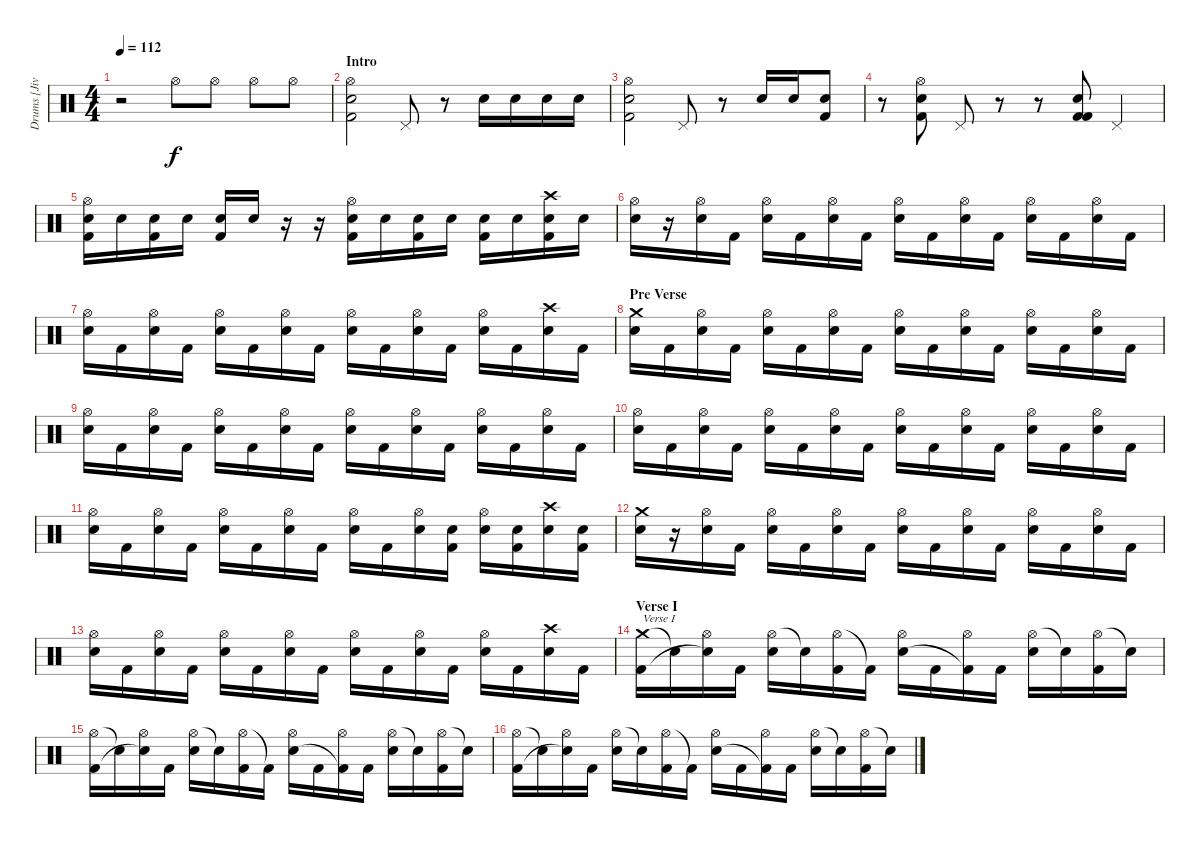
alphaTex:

\track ("Drums [Jivarp]" "Drums [Jiv") {instrument percussion}
\staff {score}
\articulation defaults
\ts (4 4)
\tempo 112
\clef neutral
\ks c
r.2{dy f} "Hi-Hat (open)".8 "Hi-Hat (open)".8 "Hi-Hat (open)".8 "Hi-Hat (open)".8 |
\section ("" "Intro")
("Hi-Hat (open)" "Electric Snare (hit)" "Kick (hit) 2").2 "Pedal Hi-Hat (hit)".8 r.8 "Electric Snare (hit)".16 "Electric Snare (hit)".16 "Electric Snare (hit)".16 "Electric Snare (hit)".16 |
("Hi-Hat (open)" "Electric Snare (hit)" "Kick (hit) 2").2 "Pedal Hi-Hat (hit)".8 r.8 "Electric Snare (hit)".16 "Electric Snare (hit)".16 ("Electric Snare (hit)" "Kick (hit) 2").8 |
r.8 ("Hi-Hat (open)" "Electric Snare (hit)" "Kick (hit) 2").8 "Pedal Hi-Hat (hit)".8 r.8 r.8 ("Kick (hit) 2" "Electric Snare (hit)" "Kick (hit) 2").8 "Pedal Hi-Hat (hit)".4 |
("Hi-Hat (open)" "Electric Snare (hit)" "Kick (hit) 2").16 "Electric Snare (hit)".16 ("Electric Snare (hit)" "Kick (hit) 2").16 "Electric Snare (hit)".16 ("Electric Snare (hit)" "Kick (hit) 2").16 "Electric Snare (hit)".16 r.16 r.16 ("Hi-Hat (open)" "Electric Snare (hit)" "Kick (hit) 2").16 "Electric Snare (hit)".16 ("Electric Snare (hit)" "Kick (hit) 2").16 "Electric Snare (hit)".16 ("Electric Snare (hit)" "Kick (hit) 2").16 "Electric Snare (hit)".16 ("Crash high (hit)" "Electric Snare (hit)" "Kick (hit) 2").16 "Electric Snare (hit)".16 |
("Hi-Hat (open)" "Electric Snare (hit)").16 r.16 ("Hi-Hat (open)" "Electric Snare (hit)").16 "Kick (hit) 2".16 ("Hi-Hat (open)" "Electric Snare (hit)").16 "Kick (hit) 2".16 ("Hi-Hat (open)" "Electric Snare (hit)").16 "Kick (hit) 2".16 ("Hi-Hat (open)" "Electric Snare (hit)").16 "Kick (hit) 2".16 ("Hi-Hat (open)" "Electric Snare (hit)").16 "Kick (hit) 2".16 ("Hi-Hat (open)" "Electric Snare (hit)").16 "Kick (hit) 2".16 ("Hi-Hat (open)" "Electric Snare (hit)").16 "Kick (hit) 2".16 |
("Hi-Hat (open)" "Electric Snare (hit)").16 "Kick (hit) 2".16 ("Hi-Hat (open)" "Electric Snare (hit)").16 "Kick (hit) 2".16 ("Hi-Hat (open)" "Electric Snare (hit)").16 "Kick (hit) 2".16 ("Hi-Hat (open)" "Electric Snare (hit)").16 "Kick (hit) 2".16 ("Hi-Hat (open)" "Electric Snare (hit)").16 "Kick (hit) 2".16 ("Hi-Hat (open)" "Electric Snare (hit)").16 "Kick (hit) 2".16 ("Hi-Hat (open)" "Electric Snare (hit)").16 "Kick (hit) 2".16 ("Crash high (hit)" "Electric Snare (hit)").16 "Kick (hit) 2".16 |
\section ("" "Pre Verse")
("Crash medium (hit)" "Electric Snare (hit)").16 "Kick (hit) 2".16 ("Hi-Hat (open)" "Electric Snare (hit)").16 "Kick (hit) 2".16 ("Hi-Hat (open)" "Electric Snare (hit)").16 "Kick (hit) 2".16 ("Hi-Hat (open)" "Electric Snare (hit)").16 "Kick (hit) 2".16 ("Hi-Hat (open)" "Electric Snare (hit)").16 "Kick (hit) 2".16 ("Hi-Hat (open)" "Electric Snare (hit)").16 "Kick (hit) 2".16 ("Hi-Hat (open)" "Electric Snare (hit)").16 "Kick (hit) 2".16 ("Hi-Hat (open)" "Electric Snare (hit)").16 "Kick (hit) 2".16 |
("Hi-Hat (open)" "Electric Snare (hit)").16 "Kick (hit) 2".16 ("Hi-Hat (open)" "Electric Snare (hit)").16 "Kick (hit) 2".16 ("Hi-Hat (open)" "Electric Snare (hit)").16 "Kick (hit) 2".16 ("Hi-Hat (open)" "Electric Snare (hit)").16 "Kick (hit) 2".16 ("Hi-Hat (open)" "Electric Snare (hit)").16 "Kick (hit) 2".16 ("Hi-Hat (open)" "Electric Snare (hit)").16 "Kick (hit) 2".16 ("Hi-Hat (open)" "Electric Snare (hit)").16 "Kick (hit) 2".16 ("Hi-Hat (open)" "Electric Snare (hit)").16 "Kick (hit) 2".16 |
("Hi-Hat (open)" "Electric Snare (hit)").16 "Kick (hit) 2".16 ("Hi-Hat (open)" "Electric Snare (hit)").16 "Kick (hit) 2".16 ("Hi-Hat (open)" "Electric Snare (hit)").16 "Kick (hit) 2".16 ("Hi-Hat (open)" "Electric Snare (hit)").16 "Kick (hit) 2".16 ("Hi-Hat (open)" "Electric Snare (hit)").16 "Kick (hit) 2".16 ("Hi-Hat (open)" "Electric Snare (hit)").16 "Kick (hit) 2".16 ("Hi-Hat (open)" "Electric Snare (hit)").16 "Kick (hit) 2".16 ("Hi-Hat (open)" "Electric Snare (hit)").16 "Kick (hit) 2".16 |
("Hi-Hat (open)" "Electric Snare (hit)").16 "Kick (hit) 2".16 ("Hi-Hat (open)" "Electric Snare (hit)").16 "Kick (hit) 2".16 ("Hi-Hat (open)" "Electric Snare (hit)").16 "Kick (hit) 2".16 ("Hi-Hat (open)" "Electric Snare (hit)").16 "Kick (hit) 2".16 ("Hi-Hat (open)" "Electric Snare (hit)").16 "Kick (hit) 2".16 ("Hi-Hat (open)" "Electric Snare (hit)").16 ("Electric Snare (hit)" "Kick (hit) 2").16 ("Hi-Hat (open)" "Electric Snare (hit)").16 ("Electric Snare (hit)" "Kick (hit) 2").16 ("Crash high (hit)" "Electric Snare (hit)").16 ("Electric Snare (hit)" "Kick (hit) 2").16 |
("Crash medium (hit)" "Electric Snare (hit)").16 r.16 ("Hi-Hat (open)" "Electric Snare (hit)").16 "Kick (hit) 2".16 ("Hi-Hat (open)" "Electric Snare (hit)").16 "Kick (hit) 2".16 ("Hi-Hat (open)" "Electric Snare (hit)").16 "Kick (hit) 2".16 ("Hi-Hat (open)" "Electric Snare (hit)").16 "Kick (hit) 2".16 ("Hi-Hat (open)" "Electric Snare (hit)").16 "Kick (hit) 2".16 ("Hi-Hat (open)" "Electric Snare (hit)").16 "Kick (hit) 2".16 ("Hi-Hat (open)" "Electric Snare (hit)").16 "Kick (hit) 2".16 |
("Hi-Hat (open)" "Electric Snare (hit)").16 "Kick (hit) 2".16 ("Hi-Hat (open)" "Electric Snare (hit)").16 "Kick (hit) 2".16 ("Hi-Hat (open)" "Electric Snare (hit)").16 "Kick (hit) 2".16 ("Hi-Hat (open)" "Electric Snare (hit)").16 "Kick (hit) 2".16 ("Hi-Hat (open)" "Electric Snare (hit)").16 "Kick (hit) 2".16 ("Hi-Hat (open)" "Electric Snare (hit)").16 "Kick (hit) 2".16 ("Hi-Hat (open)" "Electric Snare (hit)").16 "Kick (hit) 2".16 ("Crash high (hit)" "Electric Snare (hit)").16 "Kick (hit) 2".16 |
\section ("" "Verse I")
("Crash medium (hit)" "Kick (hit) 2").16{txt "Verse I"} "Snare (hit)"{t}.16 ("Hi-Hat (open)" "Snare (hit)"{t}).16 "Kick (hit) 2".16 ("Hi-Hat (open)" "Electric Snare (hit)").16 "Snare (hit)"{t}.16 ("Hi-Hat (open)" "Kick (hit) 2").16 "Kick (hit) 2"{t}.16 ("Hi-Hat (open)" "Electric Snare (hit)").16 "Kick (hit) 2".16 ("Hi-Hat (open)" "Kick (hit) 2"{t}).16 "Kick (hit) 2".16 ("Hi-Hat (open)" "Electric Snare (hit)").16 "Snare (hit)"{t}.16 ("Hi-Hat (open)" "Kick (hit) 2").16 "Snare (hit)"{t}.16 |
("Hi-Hat (open)" "Kick (hit) 2").16 "Snare (hit)"{t}.16 ("Hi-Hat (open)" "Snare (hit)"{t}).16 "Kick (hit) 2".16 ("Hi-Hat (open)" "Electric Snare (hit)").16 "Snare (hit)"{t}.16 ("Hi-Hat (open)" "Kick (hit) 2").16 "Kick (hit) 2"{t}.16 ("Hi-Hat (open)" "Electric Snare (hit)").16 "Kick (hit) 2".16 ("Hi-Hat (open)" "Kick (hit) 2"{t}).16 "Kick (hit) 2".16 ("Hi-Hat (open)" "Electric Snare (hit)").16 "Snare (hit)"{t}.16 ("Hi-Hat (open)" "Kick (hit) 2").16 "Snare (hit)"{t}.16 |
("Hi-Hat (open)" "Kick (hit) 2").16 "Snare (hit)"{t}.16 ("Hi-Hat (open)" "Snare (hit)"{t}).16 "Kick (hit) 2".16 ("Hi-Hat (open)" "Electric Snare (hit)").16 "Snare (hit)"{t}.16 ("Hi-Hat (open)" "Kick (hit) 2").16 "Kick (hit) 2"{t}.16 ("Hi-Hat (open)" "Electric Snare (hit)").16 "Kick (hit) 2".16 ("Hi-Hat (open)" "Kick (hit) 2"{t}).16 "Kick (hit) 2".16 ("Hi-Hat (open)" "Electric Snare (hit)").16 "Snare (hit)"{t}.16 ("Hi-Hat (open)" "Kick (hit) 2").16 "Snare (hit)"{t}.16
